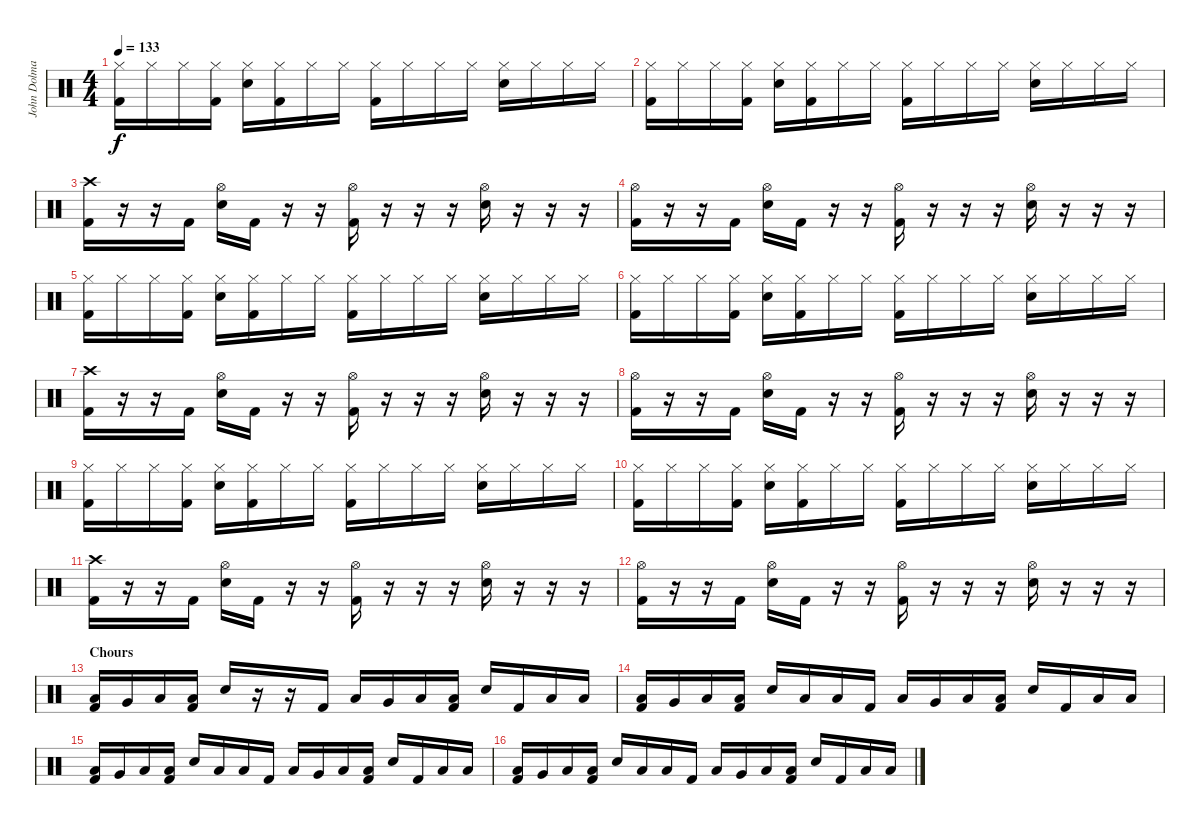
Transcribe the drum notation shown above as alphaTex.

\track ("John Dolmayan" "John Dolma") {instrument percussion}
\staff {score}
\articulation defaults
\ts (4 4)
\tempo 133
\clef neutral
\ks c
("Hi-Hat (closed)" "Kick (hit) 2").16{dy f} "Hi-Hat (closed)".16 "Hi-Hat (closed)".16 ("Hi-Hat (closed)" "Kick (hit) 2").16 ("Hi-Hat (closed)" "Electric Snare (hit)").16 ("Hi-Hat (closed)" "Kick (hit) 2").16 "Hi-Hat (closed)".16 "Hi-Hat (closed)".16 ("Hi-Hat (closed)" "Kick (hit) 2").16 "Hi-Hat (closed)".16 "Hi-Hat (closed)".16 "Hi-Hat (closed)".16 ("Hi-Hat (closed)" "Electric Snare (hit)").16 "Hi-Hat (closed)".16 "Hi-Hat (closed)".16 "Hi-Hat (closed)".16 |
("Hi-Hat (closed)" "Kick (hit) 2").16 "Hi-Hat (closed)".16 "Hi-Hat (closed)".16 ("Hi-Hat (closed)" "Kick (hit) 2").16 ("Hi-Hat (closed)" "Electric Snare (hit)").16 ("Hi-Hat (closed)" "Kick (hit) 2").16 "Hi-Hat (closed)".16 "Hi-Hat (closed)".16 ("Hi-Hat (closed)" "Kick (hit) 2").16 "Hi-Hat (closed)".16 "Hi-Hat (closed)".16 "Hi-Hat (closed)".16 ("Hi-Hat (closed)" "Electric Snare (hit)").16 "Hi-Hat (closed)".16 "Hi-Hat (closed)".16 "Hi-Hat (closed)".16 |
("Crash high (hit)" "Kick (hit) 2").16 r.16 r.16 "Kick (hit) 2".16 ("Hi-Hat (open)" "Electric Snare (hit)").16 "Kick (hit) 2".16 r.16 r.16 ("Hi-Hat (open)" "Kick (hit) 2").16 r.16 r.16 r.16 ("Hi-Hat (open)" "Electric Snare (hit)").16 r.16 r.16 r.16 |
("Hi-Hat (open)" "Kick (hit) 2").16 r.16 r.16 "Kick (hit) 2".16 ("Hi-Hat (open)" "Electric Snare (hit)").16 "Kick (hit) 2".16 r.16 r.16 ("Hi-Hat (open)" "Kick (hit) 2").16 r.16 r.16 r.16 ("Hi-Hat (open)" "Electric Snare (hit)").16 r.16 r.16 r.16 |
("Hi-Hat (closed)" "Kick (hit) 2").16 "Hi-Hat (closed)".16 "Hi-Hat (closed)".16 ("Hi-Hat (closed)" "Kick (hit) 2").16 ("Hi-Hat (closed)" "Electric Snare (hit)").16 ("Hi-Hat (closed)" "Kick (hit) 2").16 "Hi-Hat (closed)".16 "Hi-Hat (closed)".16 ("Hi-Hat (closed)" "Kick (hit) 2").16 "Hi-Hat (closed)".16 "Hi-Hat (closed)".16 "Hi-Hat (closed)".16 ("Hi-Hat (closed)" "Electric Snare (hit)").16 "Hi-Hat (closed)".16 "Hi-Hat (closed)".16 "Hi-Hat (closed)".16 |
("Hi-Hat (closed)" "Kick (hit) 2").16 "Hi-Hat (closed)".16 "Hi-Hat (closed)".16 ("Hi-Hat (closed)" "Kick (hit) 2").16 ("Hi-Hat (closed)" "Electric Snare (hit)").16 ("Hi-Hat (closed)" "Kick (hit) 2").16 "Hi-Hat (closed)".16 "Hi-Hat (closed)".16 ("Hi-Hat (closed)" "Kick (hit) 2").16 "Hi-Hat (closed)".16 "Hi-Hat (closed)".16 "Hi-Hat (closed)".16 ("Hi-Hat (closed)" "Electric Snare (hit)").16 "Hi-Hat (closed)".16 "Hi-Hat (closed)".16 "Hi-Hat (closed)".16 |
("Crash high (hit)" "Kick (hit) 2").16 r.16 r.16 "Kick (hit) 2".16 ("Hi-Hat (open)" "Electric Snare (hit)").16 "Kick (hit) 2".16 r.16 r.16 ("Hi-Hat (open)" "Kick (hit) 2").16 r.16 r.16 r.16 ("Hi-Hat (open)" "Electric Snare (hit)").16 r.16 r.16 r.16 |
("Hi-Hat (open)" "Kick (hit) 2").16 r.16 r.16 "Kick (hit) 2".16 ("Hi-Hat (open)" "Electric Snare (hit)").16 "Kick (hit) 2".16 r.16 r.16 ("Hi-Hat (open)" "Kick (hit) 2").16 r.16 r.16 r.16 ("Hi-Hat (open)" "Electric Snare (hit)").16 r.16 r.16 r.16 |
("Hi-Hat (closed)" "Kick (hit) 2").16 "Hi-Hat (closed)".16 "Hi-Hat (closed)".16 ("Hi-Hat (closed)" "Kick (hit) 2").16 ("Hi-Hat (closed)" "Electric Snare (hit)").16 ("Hi-Hat (closed)" "Kick (hit) 2").16 "Hi-Hat (closed)".16 "Hi-Hat (closed)".16 ("Hi-Hat (closed)" "Kick (hit) 2").16 "Hi-Hat (closed)".16 "Hi-Hat (closed)".16 "Hi-Hat (closed)".16 ("Hi-Hat (closed)" "Electric Snare (hit)").16 "Hi-Hat (closed)".16 "Hi-Hat (closed)".16 "Hi-Hat (closed)".16 |
("Hi-Hat (closed)" "Kick (hit) 2").16 "Hi-Hat (closed)".16 "Hi-Hat (closed)".16 ("Hi-Hat (closed)" "Kick (hit) 2").16 ("Hi-Hat (closed)" "Electric Snare (hit)").16 ("Hi-Hat (closed)" "Kick (hit) 2").16 "Hi-Hat (closed)".16 "Hi-Hat (closed)".16 ("Hi-Hat (closed)" "Kick (hit) 2").16 "Hi-Hat (closed)".16 "Hi-Hat (closed)".16 "Hi-Hat (closed)".16 ("Hi-Hat (closed)" "Electric Snare (hit)").16 "Hi-Hat (closed)".16 "Hi-Hat (closed)".16 "Hi-Hat (closed)".16 |
("Crash high (hit)" "Kick (hit) 2").16 r.16 r.16 "Kick (hit) 2".16 ("Hi-Hat (open)" "Electric Snare (hit)").16 "Kick (hit) 2".16 r.16 r.16 ("Hi-Hat (open)" "Kick (hit) 2").16 r.16 r.16 r.16 ("Hi-Hat (open)" "Electric Snare (hit)").16 r.16 r.16 r.16 |
("Hi-Hat (open)" "Kick (hit) 2").16 r.16 r.16 "Kick (hit) 2".16 ("Hi-Hat (open)" "Electric Snare (hit)").16 "Kick (hit) 2".16 r.16 r.16 ("Hi-Hat (open)" "Kick (hit) 2").16 r.16 r.16 r.16 ("Hi-Hat (open)" "Electric Snare (hit)").16 r.16 r.16 r.16 |
\section ("" "Chours")
("Low Tom (hit)" "Kick (hit) 2").16 "Very Low Tom (hit)".16 "Low Floor Tom (hit)".16 ("Low Floor Tom (hit)" "Kick (hit) 2").16 "Electric Snare (hit)".16 r.16 r.16 "Kick (hit) 2".16 "Low Tom (hit)".16 "Very Low Tom (hit)".16 "Low Floor Tom (hit)".16 ("Low Floor Tom (hit)" "Kick (hit) 2").16 "Electric Snare (hit)".16 "Kick (hit) 2".16 "Low Floor Tom (hit)".16 "Low Floor Tom (hit)".16 |
("Low Tom (hit)" "Kick (hit) 2").16 "Very Low Tom (hit)".16 "Low Floor Tom (hit)".16 ("Low Floor Tom (hit)" "Kick (hit) 2").16 "Electric Snare (hit)".16 "Low Floor Tom (hit)".16 "Low Floor Tom (hit)".16 "Kick (hit) 2".16 "Low Tom (hit)".16 "Very Low Tom (hit)".16 "Low Floor Tom (hit)".16 ("Low Floor Tom (hit)" "Kick (hit) 2").16 "Electric Snare (hit)".16 "Kick (hit) 2".16 "Low Floor Tom (hit)".16 "Low Floor Tom (hit)".16 |
("Low Tom (hit)" "Kick (hit) 2").16 "Very Low Tom (hit)".16 "Low Floor Tom (hit)".16 ("Low Floor Tom (hit)" "Kick (hit) 2").16 "Electric Snare (hit)".16 "Low Floor Tom (hit)".16 "Low Floor Tom (hit)".16 "Kick (hit) 2".16 "Low Tom (hit)".16 "Very Low Tom (hit)".16 "Low Floor Tom (hit)".16 ("Low Floor Tom (hit)" "Kick (hit) 2").16 "Electric Snare (hit)".16 "Kick (hit) 2".16 "Low Floor Tom (hit)".16 "Low Floor Tom (hit)".16 |
("Low Tom (hit)" "Kick (hit) 2").16 "Very Low Tom (hit)".16 "Low Floor Tom (hit)".16 ("Low Floor Tom (hit)" "Kick (hit) 2").16 "Electric Snare (hit)".16 "Low Floor Tom (hit)".16 "Low Floor Tom (hit)".16 "Kick (hit) 2".16 "Low Tom (hit)".16 "Very Low Tom (hit)".16 "Low Floor Tom (hit)".16 ("Low Floor Tom (hit)" "Kick (hit) 2").16 "Electric Snare (hit)".16 "Kick (hit) 2".16 "Low Floor Tom (hit)".16 "Low Floor Tom (hit)".16
